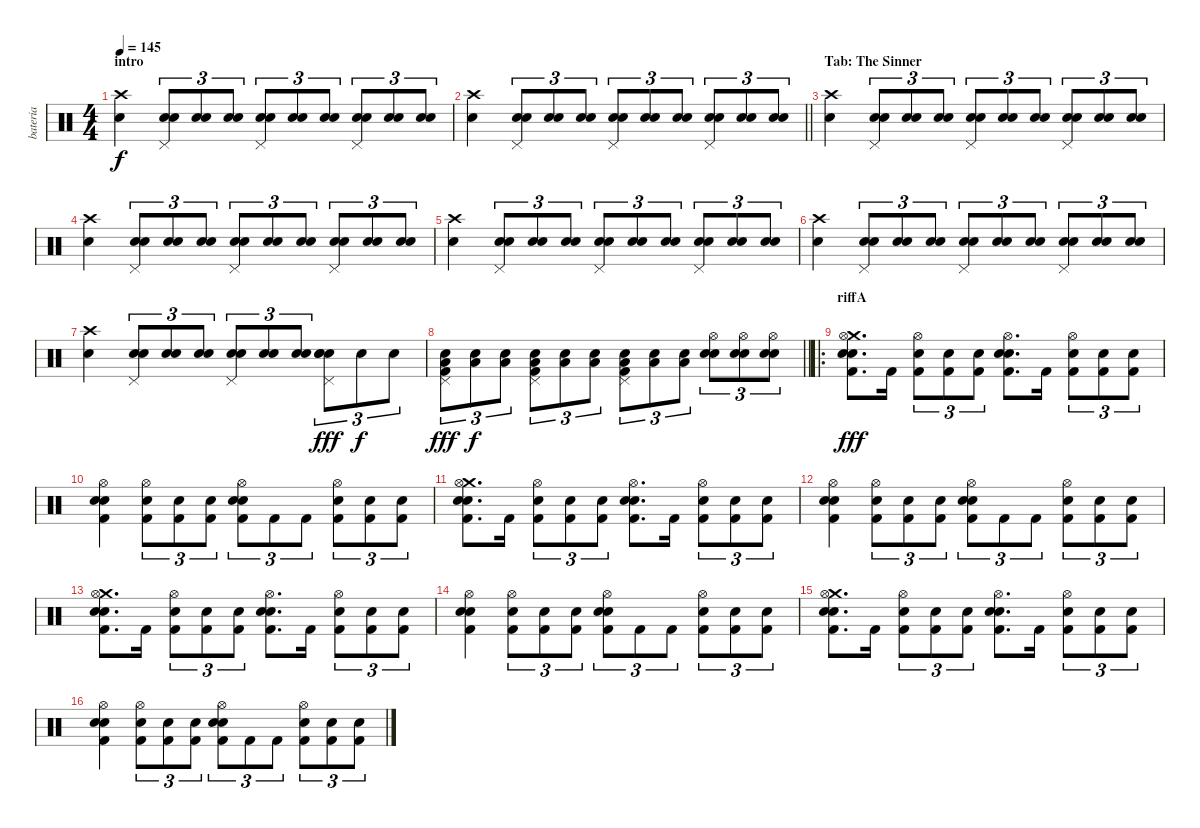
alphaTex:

\track ("bateria" "bateria") {instrument percussion}
\staff {score}
\articulation defaults
\ts (4 4)
\section ("" "intro")
\tempo 145
\clef neutral
\ks c
("Snare (hit)" "Crash high (hit)").4{dy f} ("Snare (hit)" "Snare (hit) 2" "Pedal Hi-Hat (hit)").8{tu (3 2)} ("Snare (hit)" "Snare (hit) 2").8{tu (3 2)} ("Snare (hit)" "Snare (hit) 2").8{tu (3 2)} ("Snare (hit)" "Snare (hit) 2" "Pedal Hi-Hat (hit)").8{tu (3 2)} ("Snare (hit)" "Snare (hit) 2").8{tu (3 2)} ("Snare (hit)" "Snare (hit) 2").8{tu (3 2)} ("Snare (hit)" "Snare (hit) 2" "Pedal Hi-Hat (hit)").8{tu (3 2)} ("Snare (hit)" "Snare (hit) 2").8{tu (3 2)} ("Snare (hit)" "Snare (hit) 2").8{tu (3 2)} |
\barLineRight lightlight
("Snare (hit)" "Crash high (hit)").4 ("Snare (hit)" "Snare (hit) 2" "Pedal Hi-Hat (hit)").8{tu (3 2)} ("Snare (hit)" "Snare (hit) 2").8{tu (3 2)} ("Snare (hit)" "Snare (hit) 2").8{tu (3 2)} ("Snare (hit)" "Snare (hit) 2" "Pedal Hi-Hat (hit)").8{tu (3 2)} ("Snare (hit)" "Snare (hit) 2").8{tu (3 2)} ("Snare (hit)" "Snare (hit) 2").8{tu (3 2)} ("Snare (hit)" "Snare (hit) 2" "Pedal Hi-Hat (hit)").8{tu (3 2)} ("Snare (hit)" "Snare (hit) 2").8{tu (3 2)} ("Snare (hit)" "Snare (hit) 2").8{tu (3 2)} |
\section ("" "Tab: The Sinner")
("Snare (hit)" "Crash high (hit)").4 ("Snare (hit)" "Snare (hit) 2" "Pedal Hi-Hat (hit)").8{tu (3 2)} ("Snare (hit)" "Snare (hit) 2").8{tu (3 2)} ("Snare (hit)" "Snare (hit) 2").8{tu (3 2)} ("Snare (hit)" "Snare (hit) 2" "Pedal Hi-Hat (hit)").8{tu (3 2)} ("Snare (hit)" "Snare (hit) 2").8{tu (3 2)} ("Snare (hit)" "Snare (hit) 2").8{tu (3 2)} ("Snare (hit)" "Snare (hit) 2" "Pedal Hi-Hat (hit)").8{tu (3 2)} ("Snare (hit)" "Snare (hit) 2").8{tu (3 2)} ("Snare (hit)" "Snare (hit) 2").8{tu (3 2)} |
("Snare (hit)" "Crash high (hit)").4 ("Snare (hit)" "Snare (hit) 2" "Pedal Hi-Hat (hit)").8{tu (3 2)} ("Snare (hit)" "Snare (hit) 2").8{tu (3 2)} ("Snare (hit)" "Snare (hit) 2").8{tu (3 2)} ("Snare (hit)" "Snare (hit) 2" "Pedal Hi-Hat (hit)").8{tu (3 2)} ("Snare (hit)" "Snare (hit) 2").8{tu (3 2)} ("Snare (hit)" "Snare (hit) 2").8{tu (3 2)} ("Snare (hit)" "Snare (hit) 2" "Pedal Hi-Hat (hit)").8{tu (3 2)} ("Snare (hit)" "Snare (hit) 2").8{tu (3 2)} ("Snare (hit)" "Snare (hit) 2").8{tu (3 2)} |
("Snare (hit)" "Crash high (hit)").4 ("Snare (hit)" "Snare (hit) 2" "Pedal Hi-Hat (hit)").8{tu (3 2)} ("Snare (hit)" "Snare (hit) 2").8{tu (3 2)} ("Snare (hit)" "Snare (hit) 2").8{tu (3 2)} ("Snare (hit)" "Snare (hit) 2" "Pedal Hi-Hat (hit)").8{tu (3 2)} ("Snare (hit)" "Snare (hit) 2").8{tu (3 2)} ("Snare (hit)" "Snare (hit) 2").8{tu (3 2)} ("Snare (hit)" "Snare (hit) 2" "Pedal Hi-Hat (hit)").8{tu (3 2)} ("Snare (hit)" "Snare (hit) 2").8{tu (3 2)} ("Snare (hit)" "Snare (hit) 2").8{tu (3 2)} |
("Snare (hit)" "Crash high (hit)").4 ("Snare (hit)" "Snare (hit) 2" "Pedal Hi-Hat (hit)").8{tu (3 2)} ("Snare (hit)" "Snare (hit) 2").8{tu (3 2)} ("Snare (hit)" "Snare (hit) 2").8{tu (3 2)} ("Snare (hit)" "Snare (hit) 2" "Pedal Hi-Hat (hit)").8{tu (3 2)} ("Snare (hit)" "Snare (hit) 2").8{tu (3 2)} ("Snare (hit)" "Snare (hit) 2").8{tu (3 2)} ("Snare (hit)" "Snare (hit) 2" "Pedal Hi-Hat (hit)").8{tu (3 2)} ("Snare (hit)" "Snare (hit) 2").8{tu (3 2)} ("Snare (hit)" "Snare (hit) 2").8{tu (3 2)} |
("Snare (hit)" "Crash high (hit)").4 ("Snare (hit)" "Snare (hit) 2" "Pedal Hi-Hat (hit)").8{tu (3 2)} ("Snare (hit)" "Snare (hit) 2").8{tu (3 2)} ("Snare (hit)" "Snare (hit) 2").8{tu (3 2)} ("Snare (hit)" "Snare (hit) 2" "Pedal Hi-Hat (hit)").8{tu (3 2)} ("Snare (hit)" "Snare (hit) 2").8{tu (3 2)} ("Snare (hit)" "Snare (hit) 2").8{tu (3 2)} ("Snare (hit)" "Electric Snare (hit)" "Snare (hit) 2" "Pedal Hi-Hat (hit)").8{tu (3 2) dy fff} "Snare (hit)".8{tu (3 2) dy f} "Snare (hit)".8{tu (3 2)} |
\barLineRight lightlight
("Snare (hit)" "Kick (hit) 2" "Low Tom (hit)" "Pedal Hi-Hat (hit)").8{tu (3 2) dy fff} ("Snare (hit)" "Low Tom (hit)").8{tu (3 2) dy f} ("Snare (hit)" "Low Tom (hit)").8{tu (3 2)} ("Snare (hit)" "Kick (hit) 2" "Low Tom (hit)" "Pedal Hi-Hat (hit)").8{tu (3 2)} ("Snare (hit)" "Low Tom (hit)").8{tu (3 2)} ("Snare (hit)" "Low Tom (hit)").8{tu (3 2)} ("Snare (hit)" "Kick (hit) 2" "Low Tom (hit)" "Pedal Hi-Hat (hit)").8{tu (3 2)} ("Snare (hit)" "Low Tom (hit)").8{tu (3 2)} ("Snare (hit)" "Low Tom (hit)").8{tu (3 2)} ("Snare (hit)" "Snare (hit) 2" "Hi-Hat (open)").8{tu (3 2)} ("Snare (hit)" "Snare (hit) 2" "Hi-Hat (open)").8{tu (3 2)} ("Snare (hit)" "Snare (hit) 2" "Hi-Hat (open)").8{tu (3 2)} |
\ro
\section ("" "riffA")
("Snare (hit)" "Kick (hit) 2" "Snare (hit) 2" "Crash medium (hit)" "Hi-Hat (open)").8{d dy fff} "Kick (hit) 2".16 ("Snare (hit)" "Kick (hit) 2" "Hi-Hat (open)").8{tu (3 2)} ("Snare (hit)" "Kick (hit) 2").8{tu (3 2)} ("Snare (hit)" "Kick (hit) 2").8{tu (3 2)} ("Snare (hit)" "Kick (hit) 2" "Snare (hit) 2" "Hi-Hat (open)").8{d} "Kick (hit) 2".16 ("Snare (hit)" "Kick (hit) 2" "Hi-Hat (open)").8{tu (3 2)} ("Snare (hit)" "Kick (hit) 2").8{tu (3 2)} ("Snare (hit)" "Kick (hit) 2").8{tu (3 2)} |
("Snare (hit)" "Kick (hit) 2" "Snare (hit) 2" "Hi-Hat (open)").4 ("Snare (hit)" "Kick (hit) 2" "Hi-Hat (open)").8{tu (3 2)} ("Snare (hit)" "Kick (hit) 2").8{tu (3 2)} ("Snare (hit)" "Kick (hit) 2").8{tu (3 2)} ("Snare (hit)" "Kick (hit) 2" "Snare (hit) 2" "Hi-Hat (open)").8{tu (3 2)} "Kick (hit) 2".8{tu (3 2)} "Kick (hit) 2".8{tu (3 2)} ("Snare (hit)" "Kick (hit) 2" "Hi-Hat (open)").8{tu (3 2)} ("Snare (hit)" "Kick (hit) 2").8{tu (3 2)} ("Snare (hit)" "Kick (hit) 2").8{tu (3 2)} |
("Snare (hit)" "Kick (hit) 2" "Snare (hit) 2" "Crash medium (hit)" "Hi-Hat (open)").8{d} "Kick (hit) 2".16 ("Snare (hit)" "Kick (hit) 2" "Hi-Hat (open)").8{tu (3 2)} ("Snare (hit)" "Kick (hit) 2").8{tu (3 2)} ("Snare (hit)" "Kick (hit) 2").8{tu (3 2)} ("Snare (hit)" "Kick (hit) 2" "Snare (hit) 2" "Hi-Hat (open)").8{d} "Kick (hit) 2".16 ("Snare (hit)" "Kick (hit) 2" "Hi-Hat (open)").8{tu (3 2)} ("Snare (hit)" "Kick (hit) 2").8{tu (3 2)} ("Snare (hit)" "Kick (hit) 2").8{tu (3 2)} |
("Snare (hit)" "Kick (hit) 2" "Snare (hit) 2" "Hi-Hat (open)").4 ("Snare (hit)" "Kick (hit) 2" "Hi-Hat (open)").8{tu (3 2)} ("Snare (hit)" "Kick (hit) 2").8{tu (3 2)} ("Snare (hit)" "Kick (hit) 2").8{tu (3 2)} ("Snare (hit)" "Kick (hit) 2" "Snare (hit) 2" "Hi-Hat (open)").8{tu (3 2)} "Kick (hit) 2".8{tu (3 2)} "Kick (hit) 2".8{tu (3 2)} ("Snare (hit)" "Kick (hit) 2" "Hi-Hat (open)").8{tu (3 2)} ("Snare (hit)" "Kick (hit) 2").8{tu (3 2)} ("Snare (hit)" "Kick (hit) 2").8{tu (3 2)} |
("Snare (hit)" "Kick (hit) 2" "Snare (hit) 2" "Crash medium (hit)" "Hi-Hat (open)").8{d} "Kick (hit) 2".16 ("Snare (hit)" "Kick (hit) 2" "Hi-Hat (open)").8{tu (3 2)} ("Snare (hit)" "Kick (hit) 2").8{tu (3 2)} ("Snare (hit)" "Kick (hit) 2").8{tu (3 2)} ("Snare (hit)" "Kick (hit) 2" "Snare (hit) 2" "Hi-Hat (open)").8{d} "Kick (hit) 2".16 ("Snare (hit)" "Kick (hit) 2" "Hi-Hat (open)").8{tu (3 2)} ("Snare (hit)" "Kick (hit) 2").8{tu (3 2)} ("Snare (hit)" "Kick (hit) 2").8{tu (3 2)} |
("Snare (hit)" "Kick (hit) 2" "Snare (hit) 2" "Hi-Hat (open)").4 ("Snare (hit)" "Kick (hit) 2" "Hi-Hat (open)").8{tu (3 2)} ("Snare (hit)" "Kick (hit) 2").8{tu (3 2)} ("Snare (hit)" "Kick (hit) 2").8{tu (3 2)} ("Snare (hit)" "Kick (hit) 2" "Snare (hit) 2" "Hi-Hat (open)").8{tu (3 2)} "Kick (hit) 2".8{tu (3 2)} "Kick (hit) 2".8{tu (3 2)} ("Snare (hit)" "Kick (hit) 2" "Hi-Hat (open)").8{tu (3 2)} ("Snare (hit)" "Kick (hit) 2").8{tu (3 2)} ("Snare (hit)" "Kick (hit) 2").8{tu (3 2)} |
("Snare (hit)" "Kick (hit) 2" "Snare (hit) 2" "Crash medium (hit)" "Hi-Hat (open)").8{d} "Kick (hit) 2".16 ("Snare (hit)" "Kick (hit) 2" "Hi-Hat (open)").8{tu (3 2)} ("Snare (hit)" "Kick (hit) 2").8{tu (3 2)} ("Snare (hit)" "Kick (hit) 2").8{tu (3 2)} ("Snare (hit)" "Kick (hit) 2" "Snare (hit) 2" "Hi-Hat (open)").8{d} "Kick (hit) 2".16 ("Snare (hit)" "Kick (hit) 2" "Hi-Hat (open)").8{tu (3 2)} ("Snare (hit)" "Kick (hit) 2").8{tu (3 2)} ("Snare (hit)" "Kick (hit) 2").8{tu (3 2)} |
("Snare (hit)" "Kick (hit) 2" "Snare (hit) 2" "Hi-Hat (open)").4 ("Snare (hit)" "Kick (hit) 2" "Hi-Hat (open)").8{tu (3 2)} ("Snare (hit)" "Kick (hit) 2").8{tu (3 2)} ("Snare (hit)" "Kick (hit) 2").8{tu (3 2)} ("Snare (hit)" "Kick (hit) 2" "Snare (hit) 2" "Hi-Hat (open)").8{tu (3 2)} "Kick (hit) 2".8{tu (3 2)} "Kick (hit) 2".8{tu (3 2)} ("Snare (hit)" "Kick (hit) 2" "Hi-Hat (open)").8{tu (3 2)} ("Snare (hit)" "Kick (hit) 2").8{tu (3 2)} ("Snare (hit)" "Kick (hit) 2").8{tu (3 2)}
